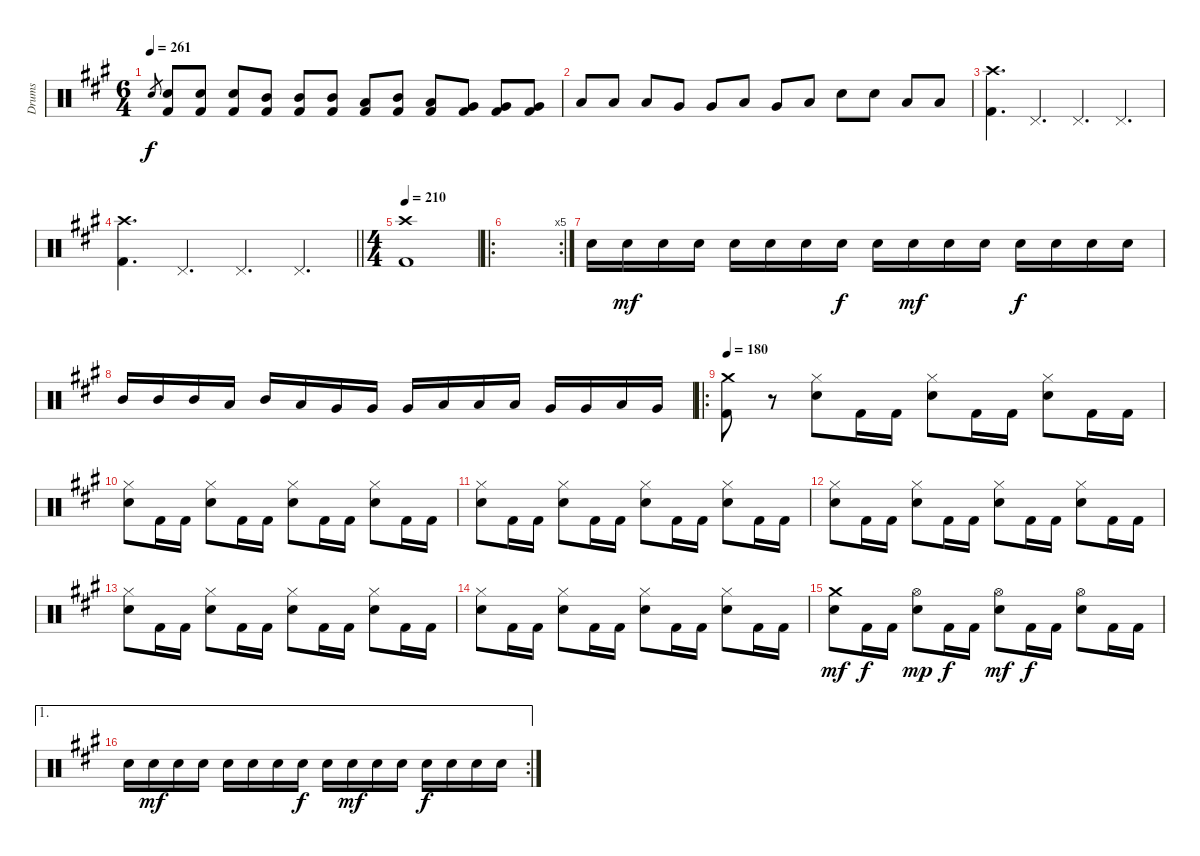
\track ("Drums" "Drums") {instrument percussion}
\staff {score}
\articulation defaults
\ts (6 4)
\tempo 261
\clef neutral
\ks a "Snare (hit) 2".8{gr dy f}
("Snare (hit) 2" "Kick (hit) 2").8 ("Snare (hit) 2" "Kick (hit) 2").8 ("Snare (hit) 2" "Kick (hit) 2").8 ("Mid Tom (hit)" "Kick (hit) 2").8 ("Mid Tom (hit)" "Kick (hit) 2").8 ("Mid Tom (hit)" "Kick (hit) 2").8 ("Low Tom (hit)" "Kick (hit) 2").8 ("Mid Tom (hit)" "Kick (hit) 2").8 ("Low Tom (hit)" "Kick (hit) 2").8 ("Very Low Tom (hit)" "Kick (hit) 2").8 ("Very Low Tom (hit)" "Kick (hit) 2").8 ("Very Low Tom (hit)" "Kick (hit) 2").8 |
"Low Tom (hit)".8 "Low Tom (hit)".8 "Low Tom (hit)".8 "Very Low Tom (hit)".8 "Very Low Tom (hit)".8 "Low Tom (hit)".8 "Very Low Tom (hit)".8 "Low Floor Tom (hit)".8 "Snare (hit) 2".8 "Snare (hit) 2".8 "Low Floor Tom (hit)".8 "Low Floor Tom (hit)".8 |
("Crash high (hit)" "Kick (hit) 2").4{d} "Pedal Hi-Hat (hit)".4{d} "Pedal Hi-Hat (hit)".4{d} "Pedal Hi-Hat (hit)".4{d} |
\barLineRight lightlight
("Crash high (hit)" "Kick (hit) 2").4{d} "Pedal Hi-Hat (hit)".4{d} "Pedal Hi-Hat (hit)".4{d} "Pedal Hi-Hat (hit)".4{d} |
\ts (4 4)
\tempo 210
("Crash high (hit)" "Kick (hit) 2").1 |
\ro
\rc 5
|
"Snare (hit) 2".16 "Snare (hit) 2".16{dy mf} "Snare (hit) 2".16 "Snare (hit) 2".16 "Snare (hit) 2".16 "Snare (hit) 2".16 "Snare (hit) 2".16 "Snare (hit) 2".16{dy f} "Snare (hit) 2".16 "Snare (hit) 2".16{dy mf} "Snare (hit) 2".16 "Snare (hit) 2".16 "Snare (hit) 2".16{dy f} "Snare (hit) 2".16 "Snare (hit) 2".16 "Snare (hit) 2".16 |
"Mid Tom (hit)".16 "Mid Tom (hit)".16 "Mid Tom (hit)".16 "Low Tom (hit)".16 "Mid Tom (hit)".16 "Low Tom (hit)".16 "Very Low Tom (hit)".16 "Very Low Tom (hit)".16 "Very Low Tom (hit)".16 "Low Tom (hit)".16 "Low Tom (hit)".16 "Low Tom (hit)".16 "Very Low Tom (hit)".16 "Very Low Tom (hit)".16 "Low Tom (hit)".16 "Very Low Tom (hit)".16 |
\ro
\tempo 180
("Crash medium (hit)" "Kick (hit) 2").8 r.8 ("Hi-Hat (closed)" "Snare (hit) 2").8 "Kick (hit) 2".16 "Kick (hit) 2".16 ("Hi-Hat (closed)" "Snare (hit) 2").8 "Kick (hit) 2".16 "Kick (hit) 2".16 ("Hi-Hat (closed)" "Snare (hit) 2").8 "Kick (hit) 2".16 "Kick (hit) 2".16 |
("Hi-Hat (closed)" "Snare (hit) 2").8 "Kick (hit) 2".16 "Kick (hit) 2".16 ("Hi-Hat (closed)" "Snare (hit) 2").8 "Kick (hit) 2".16 "Kick (hit) 2".16 ("Hi-Hat (closed)" "Snare (hit) 2").8 "Kick (hit) 2".16 "Kick (hit) 2".16 ("Hi-Hat (closed)" "Snare (hit) 2").8 "Kick (hit) 2".16 "Kick (hit) 2".16 |
("Hi-Hat (closed)" "Snare (hit) 2").8 "Kick (hit) 2".16 "Kick (hit) 2".16 ("Hi-Hat (closed)" "Snare (hit) 2").8 "Kick (hit) 2".16 "Kick (hit) 2".16 ("Hi-Hat (closed)" "Snare (hit) 2").8 "Kick (hit) 2".16 "Kick (hit) 2".16 ("Hi-Hat (closed)" "Snare (hit) 2").8 "Kick (hit) 2".16 "Kick (hit) 2".16 |
("Hi-Hat (closed)" "Snare (hit) 2").8 "Kick (hit) 2".16 "Kick (hit) 2".16 ("Hi-Hat (closed)" "Snare (hit) 2").8 "Kick (hit) 2".16 "Kick (hit) 2".16 ("Hi-Hat (closed)" "Snare (hit) 2").8 "Kick (hit) 2".16 "Kick (hit) 2".16 ("Hi-Hat (closed)" "Snare (hit) 2").8 "Kick (hit) 2".16 "Kick (hit) 2".16 |
("Hi-Hat (closed)" "Snare (hit) 2").8 "Kick (hit) 2".16 "Kick (hit) 2".16 ("Hi-Hat (closed)" "Snare (hit) 2").8 "Kick (hit) 2".16 "Kick (hit) 2".16 ("Hi-Hat (closed)" "Snare (hit) 2").8 "Kick (hit) 2".16 "Kick (hit) 2".16 ("Hi-Hat (closed)" "Snare (hit) 2").8 "Kick (hit) 2".16 "Kick (hit) 2".16 |
("Hi-Hat (closed)" "Snare (hit) 2").8 "Kick (hit) 2".16 "Kick (hit) 2".16 ("Hi-Hat (closed)" "Snare (hit) 2").8 "Kick (hit) 2".16 "Kick (hit) 2".16 ("Hi-Hat (closed)" "Snare (hit) 2").8 "Kick (hit) 2".16 "Kick (hit) 2".16 ("Hi-Hat (closed)" "Snare (hit) 2").8 "Kick (hit) 2".16 "Kick (hit) 2".16 |
("Crash medium (hit)" "Snare (hit) 2").8{dy mf} "Kick (hit) 2".16{dy f} "Kick (hit) 2".16 ("Hi-Hat (open)" "Snare (hit) 2").8{dy mp} "Kick (hit) 2".16{dy f} "Kick (hit) 2".16 ("Hi-Hat (open)" "Snare (hit) 2").8{dy mf} "Kick (hit) 2".16{dy f} "Kick (hit) 2".16 ("Hi-Hat (open)" "Snare (hit) 2").8 "Kick (hit) 2".16 "Kick (hit) 2".16 |
\ae 1
\rc 2 "Snare (hit) 2".16 "Snare (hit) 2".16{dy mf} "Snare (hit) 2".16 "Snare (hit) 2".16 "Snare (hit) 2".16 "Snare (hit) 2".16 "Snare (hit) 2".16 "Snare (hit) 2".16{dy f} "Snare (hit) 2".16 "Snare (hit) 2".16{dy mf} "Snare (hit) 2".16 "Snare (hit) 2".16 "Snare (hit) 2".16{dy f} "Snare (hit) 2".16 "Snare (hit) 2".16 "Snare (hit) 2".16
